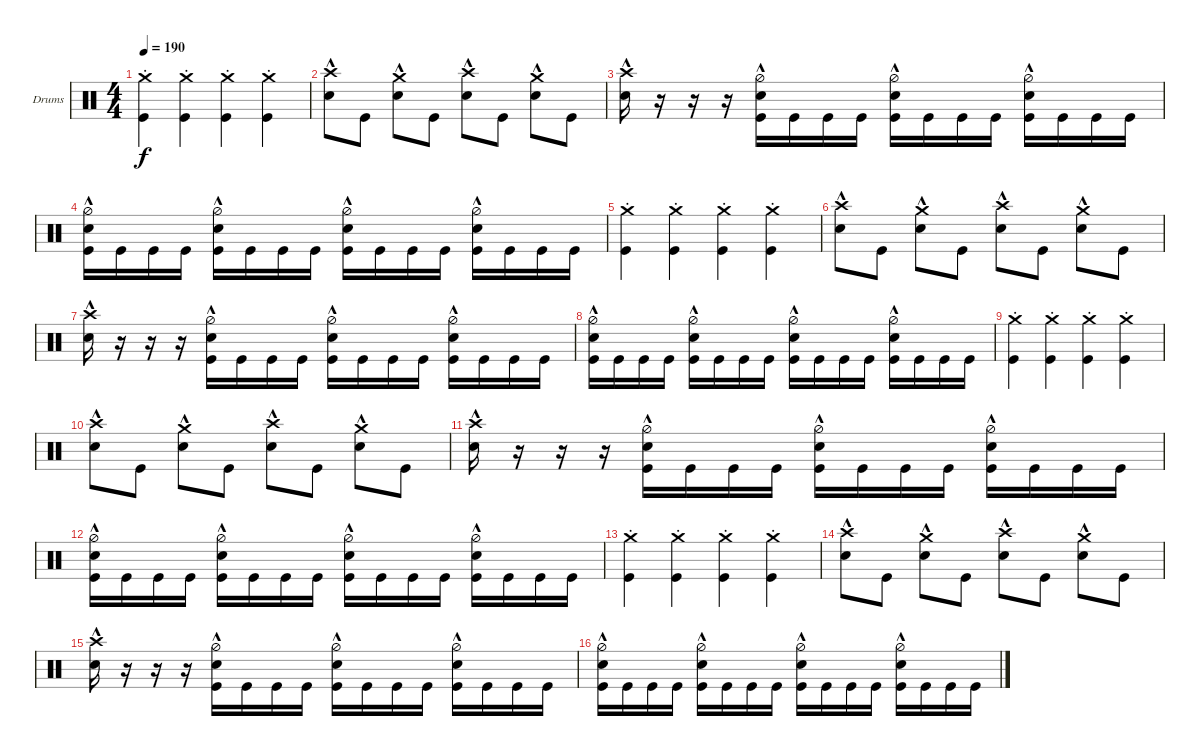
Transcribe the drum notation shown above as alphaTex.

\bracketExtendMode groupsimilarinstruments
\firstSystemTrackNameOrientation horizontal
\otherSystemsTrackNameOrientation horizontal
\track ("Drumkit" "Drums") {instrument percussion}
\staff {score}
\articulation defaults
\ts (4 4)
\tempo 190
\clef neutral
\scale
0.333333
\ks c
("Kick (hit)" "Crash medium (hit)"{st}).4{dy f} ("Kick (hit)" "Crash medium (hit)"{st}).4 ("Kick (hit)" "Crash medium (hit)"{st}).4 ("Kick (hit)" "Crash medium (hit)"{st}).4 |
\scale
0.333333 ("Snare (hit) 2"{hac} "Crash high (hit)").8 "Kick (hit)".8 ("Snare (hit) 2"{hac} "Crash medium (hit)").8 "Kick (hit)".8 ("Snare (hit) 2"{hac} "Crash high (hit)").8 "Kick (hit)".8 ("Snare (hit) 2"{hac} "Crash medium (hit)").8 "Kick (hit)".8 |
\scale
0.333333 ("Snare (hit) 2"{hac} "Crash high (hit)").16 r.16 r.16 r.16 ("Kick (hit)" "Snare (hit) 2"{hac} "Hi-Hat (half)").16 "Kick (hit)".16 "Kick (hit)".16 "Kick (hit)".16 ("Kick (hit)" "Snare (hit) 2"{hac} "Hi-Hat (half)").16 "Kick (hit)".16 "Kick (hit)".16 "Kick (hit)".16 ("Kick (hit)" "Snare (hit) 2"{hac} "Hi-Hat (half)").16 "Kick (hit)".16 "Kick (hit)".16 "Kick (hit)".16 |
\scale
0.333333 ("Kick (hit)" "Snare (hit) 2"{hac} "Hi-Hat (half)").16 "Kick (hit)".16 "Kick (hit)".16 "Kick (hit)".16 ("Kick (hit)" "Snare (hit) 2"{hac} "Hi-Hat (half)").16 "Kick (hit)".16 "Kick (hit)".16 "Kick (hit)".16 ("Kick (hit)" "Snare (hit) 2"{hac} "Hi-Hat (half)").16 "Kick (hit)".16 "Kick (hit)".16 "Kick (hit)".16 ("Kick (hit)" "Snare (hit) 2"{hac} "Hi-Hat (half)").16 "Kick (hit)".16 "Kick (hit)".16 "Kick (hit)".16 |
\scale
0.333333 ("Kick (hit)" "Crash medium (hit)"{st}).4 ("Kick (hit)" "Crash medium (hit)"{st}).4 ("Kick (hit)" "Crash medium (hit)"{st}).4 ("Kick (hit)" "Crash medium (hit)"{st}).4 |
\scale
0.333333 ("Snare (hit) 2"{hac} "Crash high (hit)").8 "Kick (hit)".8 ("Snare (hit) 2"{hac} "Crash medium (hit)").8 "Kick (hit)".8 ("Snare (hit) 2"{hac} "Crash high (hit)").8 "Kick (hit)".8 ("Snare (hit) 2"{hac} "Crash medium (hit)").8 "Kick (hit)".8 |
\scale
0.333333 ("Snare (hit) 2"{hac} "Crash high (hit)").16 r.16 r.16 r.16 ("Kick (hit)" "Snare (hit) 2"{hac} "Hi-Hat (half)").16 "Kick (hit)".16 "Kick (hit)".16 "Kick (hit)".16 ("Kick (hit)" "Snare (hit) 2"{hac} "Hi-Hat (half)").16 "Kick (hit)".16 "Kick (hit)".16 "Kick (hit)".16 ("Kick (hit)" "Snare (hit) 2"{hac} "Hi-Hat (half)").16 "Kick (hit)".16 "Kick (hit)".16 "Kick (hit)".16 |
\scale
0.333333 ("Kick (hit)" "Snare (hit) 2"{hac} "Hi-Hat (half)").16 "Kick (hit)".16 "Kick (hit)".16 "Kick (hit)".16 ("Kick (hit)" "Snare (hit) 2"{hac} "Hi-Hat (half)").16 "Kick (hit)".16 "Kick (hit)".16 "Kick (hit)".16 ("Kick (hit)" "Snare (hit) 2"{hac} "Hi-Hat (half)").16 "Kick (hit)".16 "Kick (hit)".16 "Kick (hit)".16 ("Kick (hit)" "Snare (hit) 2"{hac} "Hi-Hat (half)").16 "Kick (hit)".16 "Kick (hit)".16 "Kick (hit)".16 |
\scale
0.333333 ("Kick (hit)" "Crash medium (hit)"{st}).4 ("Kick (hit)" "Crash medium (hit)"{st}).4 ("Kick (hit)" "Crash medium (hit)"{st}).4 ("Kick (hit)" "Crash medium (hit)"{st}).4 |
\scale
0.333333 ("Snare (hit) 2"{hac} "Crash high (hit)").8 "Kick (hit)".8 ("Snare (hit) 2"{hac} "Crash medium (hit)").8 "Kick (hit)".8 ("Snare (hit) 2"{hac} "Crash high (hit)").8 "Kick (hit)".8 ("Snare (hit) 2"{hac} "Crash medium (hit)").8 "Kick (hit)".8 |
\scale
0.333333 ("Snare (hit) 2"{hac} "Crash high (hit)").16 r.16 r.16 r.16 ("Kick (hit)" "Snare (hit) 2"{hac} "Hi-Hat (half)").16 "Kick (hit)".16 "Kick (hit)".16 "Kick (hit)".16 ("Kick (hit)" "Snare (hit) 2"{hac} "Hi-Hat (half)").16 "Kick (hit)".16 "Kick (hit)".16 "Kick (hit)".16 ("Kick (hit)" "Snare (hit) 2"{hac} "Hi-Hat (half)").16 "Kick (hit)".16 "Kick (hit)".16 "Kick (hit)".16 |
\scale
0.333333 ("Kick (hit)" "Snare (hit) 2"{hac} "Hi-Hat (half)").16 "Kick (hit)".16 "Kick (hit)".16 "Kick (hit)".16 ("Kick (hit)" "Snare (hit) 2"{hac} "Hi-Hat (half)").16 "Kick (hit)".16 "Kick (hit)".16 "Kick (hit)".16 ("Kick (hit)" "Snare (hit) 2"{hac} "Hi-Hat (half)").16 "Kick (hit)".16 "Kick (hit)".16 "Kick (hit)".16 ("Kick (hit)" "Snare (hit) 2"{hac} "Hi-Hat (half)").16 "Kick (hit)".16 "Kick (hit)".16 "Kick (hit)".16 |
\scale
0.333333 ("Kick (hit)" "Crash medium (hit)"{st}).4 ("Kick (hit)" "Crash medium (hit)"{st}).4 ("Kick (hit)" "Crash medium (hit)"{st}).4 ("Kick (hit)" "Crash medium (hit)"{st}).4 |
\scale
0.333333 ("Snare (hit) 2"{hac} "Crash high (hit)").8 "Kick (hit)".8 ("Snare (hit) 2"{hac} "Crash medium (hit)").8 "Kick (hit)".8 ("Snare (hit) 2"{hac} "Crash high (hit)").8 "Kick (hit)".8 ("Snare (hit) 2"{hac} "Crash medium (hit)").8 "Kick (hit)".8 |
\scale
0.333333 ("Snare (hit) 2"{hac} "Crash high (hit)").16 r.16 r.16 r.16 ("Kick (hit)" "Snare (hit) 2"{hac} "Hi-Hat (half)").16 "Kick (hit)".16 "Kick (hit)".16 "Kick (hit)".16 ("Kick (hit)" "Snare (hit) 2"{hac} "Hi-Hat (half)").16 "Kick (hit)".16 "Kick (hit)".16 "Kick (hit)".16 ("Kick (hit)" "Snare (hit) 2"{hac} "Hi-Hat (half)").16 "Kick (hit)".16 "Kick (hit)".16 "Kick (hit)".16 |
\scale
0.333333 ("Kick (hit)" "Snare (hit) 2"{hac} "Hi-Hat (half)").16 "Kick (hit)".16 "Kick (hit)".16 "Kick (hit)".16 ("Kick (hit)" "Snare (hit) 2"{hac} "Hi-Hat (half)").16 "Kick (hit)".16 "Kick (hit)".16 "Kick (hit)".16 ("Kick (hit)" "Snare (hit) 2"{hac} "Hi-Hat (half)").16 "Kick (hit)".16 "Kick (hit)".16 "Kick (hit)".16 ("Kick (hit)" "Snare (hit) 2"{hac} "Hi-Hat (half)").16 "Kick (hit)".16 "Kick (hit)".16 "Kick (hit)".16
